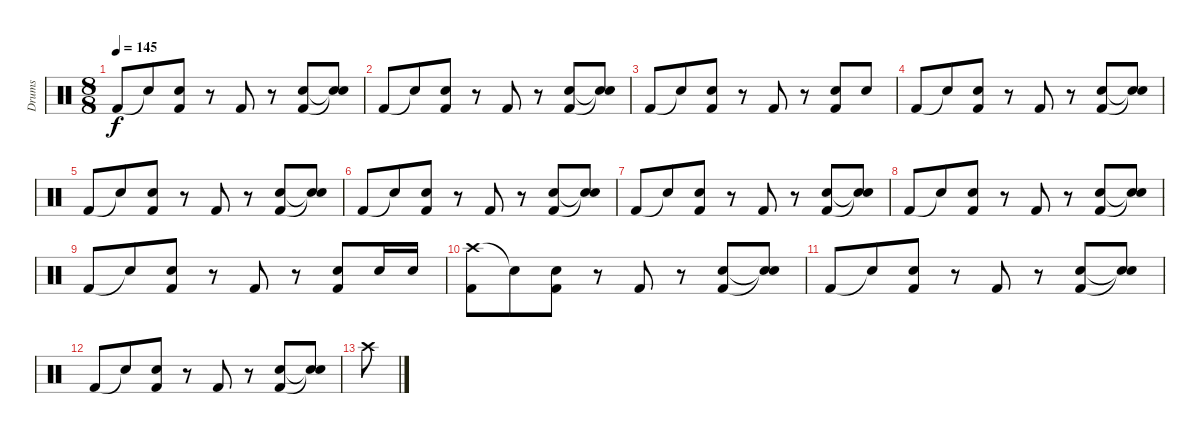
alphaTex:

\track ("Drums" "Drums") {instrument percussion}
\staff {score}
\articulation defaults
\ts (8 8)
\tempo 145
\clef neutral
\ks c "Kick (hit) 2".8{dy f} "Snare (hit)"{t}.8
("Snare (hit) 2" "Kick (hit) 2").8 r.8 "Kick (hit) 2".8 r.8 ("Snare (hit) 2" "Kick (hit) 2").8 ("Snare (hit)"{t} "Snare (hit)"{t}).8 |
"Kick (hit) 2".8 "Snare (hit)"{t}.8 ("Snare (hit) 2" "Kick (hit) 2").8 r.8 "Kick (hit) 2".8 r.8 ("Snare (hit) 2" "Kick (hit) 2").8 ("Snare (hit)"{t} "Snare (hit)"{t}).8 |
"Kick (hit) 2".8 "Snare (hit)"{t}.8 ("Snare (hit) 2" "Kick (hit) 2").8 r.8 "Kick (hit) 2".8 r.8 ("Snare (hit) 2" "Kick (hit) 2").8 "Snare (hit) 2".8 |
"Kick (hit) 2".8 "Snare (hit)"{t}.8 ("Snare (hit) 2" "Kick (hit) 2").8 r.8 "Kick (hit) 2".8 r.8 ("Snare (hit) 2" "Kick (hit) 2").8 ("Snare (hit)"{t} "Snare (hit)"{t}).8 |
"Kick (hit) 2".8 "Snare (hit)"{t}.8 ("Snare (hit) 2" "Kick (hit) 2").8 r.8 "Kick (hit) 2".8 r.8 ("Snare (hit) 2" "Kick (hit) 2").8 ("Snare (hit)"{t} "Snare (hit)"{t}).8 |
"Kick (hit) 2".8 "Snare (hit)"{t}.8 ("Snare (hit) 2" "Kick (hit) 2").8 r.8 "Kick (hit) 2".8 r.8 ("Snare (hit) 2" "Kick (hit) 2").8 ("Snare (hit)"{t} "Snare (hit)"{t}).8 |
"Kick (hit) 2".8 "Snare (hit)"{t}.8 ("Snare (hit) 2" "Kick (hit) 2").8 r.8 "Kick (hit) 2".8 r.8 ("Snare (hit) 2" "Kick (hit) 2").8 ("Snare (hit)"{t} "Snare (hit)"{t}).8 |
"Kick (hit) 2".8 "Snare (hit)"{t}.8 ("Snare (hit) 2" "Kick (hit) 2").8 r.8 "Kick (hit) 2".8 r.8 ("Snare (hit) 2" "Kick (hit) 2").8 ("Snare (hit)"{t} "Snare (hit)"{t}).8 |
"Kick (hit) 2".8 "Snare (hit)"{t}.8 ("Snare (hit) 2" "Kick (hit) 2").8 r.8 "Kick (hit) 2".8 r.8 ("Snare (hit) 2" "Kick (hit) 2").8 "Snare (hit) 2".16 "Snare (hit) 2".16 |
("Crash high (hit)" "Kick (hit) 2").8 "Snare (hit)"{t}.8 ("Snare (hit) 2" "Kick (hit) 2").8 r.8 "Kick (hit) 2".8 r.8 ("Snare (hit) 2" "Kick (hit) 2").8 ("Snare (hit)"{t} "Snare (hit)"{t}).8 |
"Kick (hit) 2".8 "Snare (hit)"{t}.8 ("Snare (hit) 2" "Kick (hit) 2").8 r.8 "Kick (hit) 2".8 r.8 ("Snare (hit) 2" "Kick (hit) 2").8 ("Snare (hit)"{t} "Snare (hit)"{t}).8 |
"Kick (hit) 2".8 "Snare (hit)"{t}.8 ("Snare (hit) 2" "Kick (hit) 2").8 r.8 "Kick (hit) 2".8 r.8 ("Snare (hit) 2" "Kick (hit) 2").8 ("Snare (hit)"{t} "Snare (hit)"{t}).8 |
"Crash high (hit)".8
